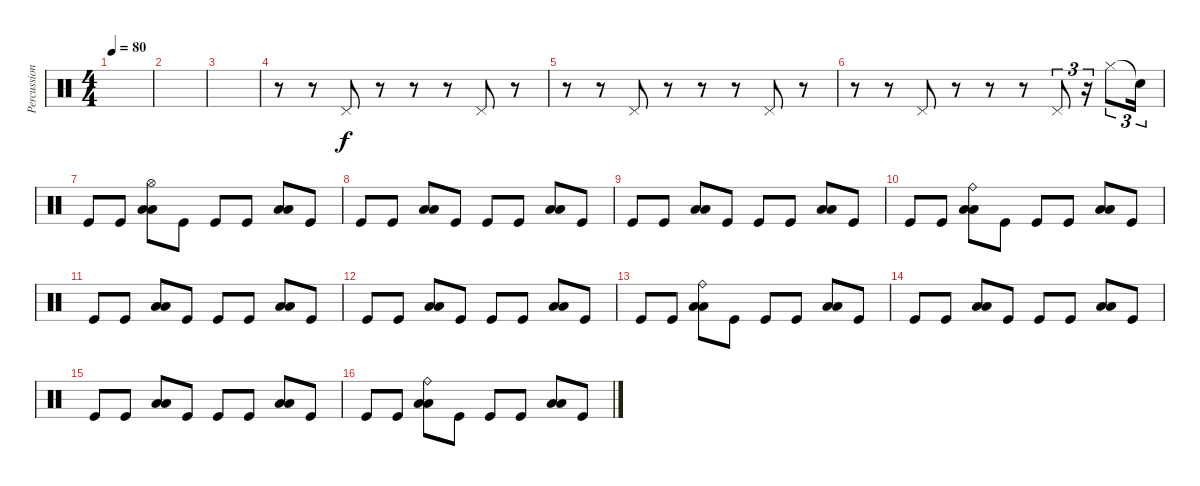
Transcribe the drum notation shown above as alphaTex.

\track ("Percussions" "Percussion") {instrument percussion}
\staff {score}
\articulation defaults
\ts (4 4)
\tempo 80
\clef neutral
\ks c
|
|
|
r.8 r.8 "Pedal Hi-Hat (hit)".8 r.8 r.8 r.8 "Pedal Hi-Hat (hit)".8 r.8 |
r.8 r.8 "Pedal Hi-Hat (hit)".8 r.8 r.8 r.8 "Pedal Hi-Hat (hit)".8 r.8 |
r.8 r.8 "Pedal Hi-Hat (hit)".8 r.8 r.8 r.8 "Pedal Hi-Hat (hit)".8{tu (3 2)} r.16{tu (3 2)} "Hi-Hat (closed)".8{tu (3 2)} "Snare (hit)"{t}.16{tu (3 2)} |
"Kick (hit)".8 "Kick (hit)".8 ("Hi-Hat (open)" "Low Tom (hit)" "Low Floor Tom (hit)").8 "Kick (hit)".8 "Kick (hit)".8 "Kick (hit)".8 ("Low Tom (hit)" "Low Floor Tom (hit)").8 "Kick (hit)".8 |
"Kick (hit)".8 "Kick (hit)".8 ("Low Tom (hit)" "Low Floor Tom (hit)").8 "Kick (hit)".8 "Kick (hit)".8 "Kick (hit)".8 ("Low Tom (hit)" "Low Floor Tom (hit)").8 "Kick (hit)".8 |
"Kick (hit)".8 "Kick (hit)".8 ("Low Tom (hit)" "Low Floor Tom (hit)").8 "Kick (hit)".8 "Kick (hit)".8 "Kick (hit)".8 ("Low Tom (hit)" "Low Floor Tom (hit)").8 "Kick (hit)".8 |
"Kick (hit)".8 "Kick (hit)".8 ("Ride (bell)" "Low Tom (hit)" "Low Floor Tom (hit)").8 "Kick (hit)".8 "Kick (hit)".8 "Kick (hit)".8 ("Low Tom (hit)" "Low Floor Tom (hit)").8 "Kick (hit)".8 |
"Kick (hit)".8 "Kick (hit)".8 ("Low Tom (hit)" "Low Floor Tom (hit)").8 "Kick (hit)".8 "Kick (hit)".8 "Kick (hit)".8 ("Low Tom (hit)" "Low Floor Tom (hit)").8 "Kick (hit)".8 |
"Kick (hit)".8 "Kick (hit)".8 ("Low Tom (hit)" "Low Floor Tom (hit)").8 "Kick (hit)".8 "Kick (hit)".8 "Kick (hit)".8 ("Low Tom (hit)" "Low Floor Tom (hit)").8 "Kick (hit)".8 |
"Kick (hit)".8 "Kick (hit)".8 ("Ride (bell)" "Low Tom (hit)" "Low Floor Tom (hit)").8 "Kick (hit)".8 "Kick (hit)".8 "Kick (hit)".8 ("Low Tom (hit)" "Low Floor Tom (hit)").8 "Kick (hit)".8 |
"Kick (hit)".8 "Kick (hit)".8 ("Low Tom (hit)" "Low Floor Tom (hit)").8 "Kick (hit)".8 "Kick (hit)".8 "Kick (hit)".8 ("Low Tom (hit)" "Low Floor Tom (hit)").8 "Kick (hit)".8 |
"Kick (hit)".8 "Kick (hit)".8 ("Low Tom (hit)" "Low Floor Tom (hit)").8 "Kick (hit)".8 "Kick (hit)".8 "Kick (hit)".8 ("Low Tom (hit)" "Low Floor Tom (hit)").8 "Kick (hit)".8 |
"Kick (hit)".8 "Kick (hit)".8 ("Ride (bell)" "Low Tom (hit)" "Low Floor Tom (hit)").8 "Kick (hit)".8 "Kick (hit)".8 "Kick (hit)".8 ("Low Tom (hit)" "Low Floor Tom (hit)").8 "Kick (hit)".8
